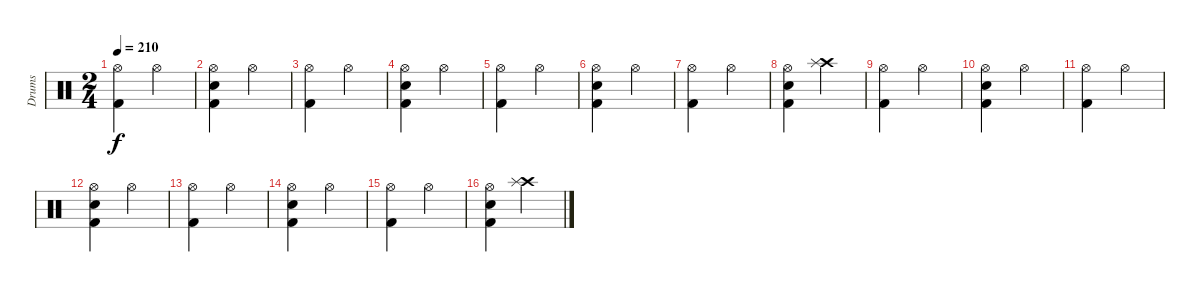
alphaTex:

\track ("Drums" "Drums") {instrument percussion}
\staff {score}
\articulation defaults
\ts (2 4)
\tempo 210
\clef neutral
\ks c
("Hi-Hat (open)" "Kick (hit) 2").4{dy f} "Hi-Hat (open)".4 |
("Hi-Hat (open)" "Electric Snare (hit)" "Kick (hit) 2").4 "Hi-Hat (open)".4 |
("Hi-Hat (open)" "Kick (hit) 2").4 "Hi-Hat (open)".4 |
("Hi-Hat (open)" "Electric Snare (hit)" "Kick (hit) 2").4 "Hi-Hat (open)".4 |
("Hi-Hat (open)" "Kick (hit) 2").4 "Hi-Hat (open)".4 |
("Hi-Hat (open)" "Electric Snare (hit)" "Kick (hit) 2").4 "Hi-Hat (open)".4 |
("Hi-Hat (open)" "Kick (hit) 2").4 "Hi-Hat (open)".4 |
("Hi-Hat (open)" "Electric Snare (hit)" "Kick (hit) 2").4 ("Crash high (hit)" "Splash (hit)").4 |
("Hi-Hat (open)" "Kick (hit) 2").4 "Hi-Hat (open)".4 |
("Hi-Hat (open)" "Electric Snare (hit)" "Kick (hit) 2").4 "Hi-Hat (open)".4 |
("Hi-Hat (open)" "Kick (hit) 2").4 "Hi-Hat (open)".4 |
("Hi-Hat (open)" "Electric Snare (hit)" "Kick (hit) 2").4 "Hi-Hat (open)".4 |
("Hi-Hat (open)" "Kick (hit) 2").4 "Hi-Hat (open)".4 |
("Hi-Hat (open)" "Electric Snare (hit)" "Kick (hit) 2").4 "Hi-Hat (open)".4 |
("Hi-Hat (open)" "Kick (hit) 2").4 "Hi-Hat (open)".4 |
("Hi-Hat (open)" "Electric Snare (hit)" "Kick (hit) 2").4 ("Crash high (hit)" "Splash (hit)").4
